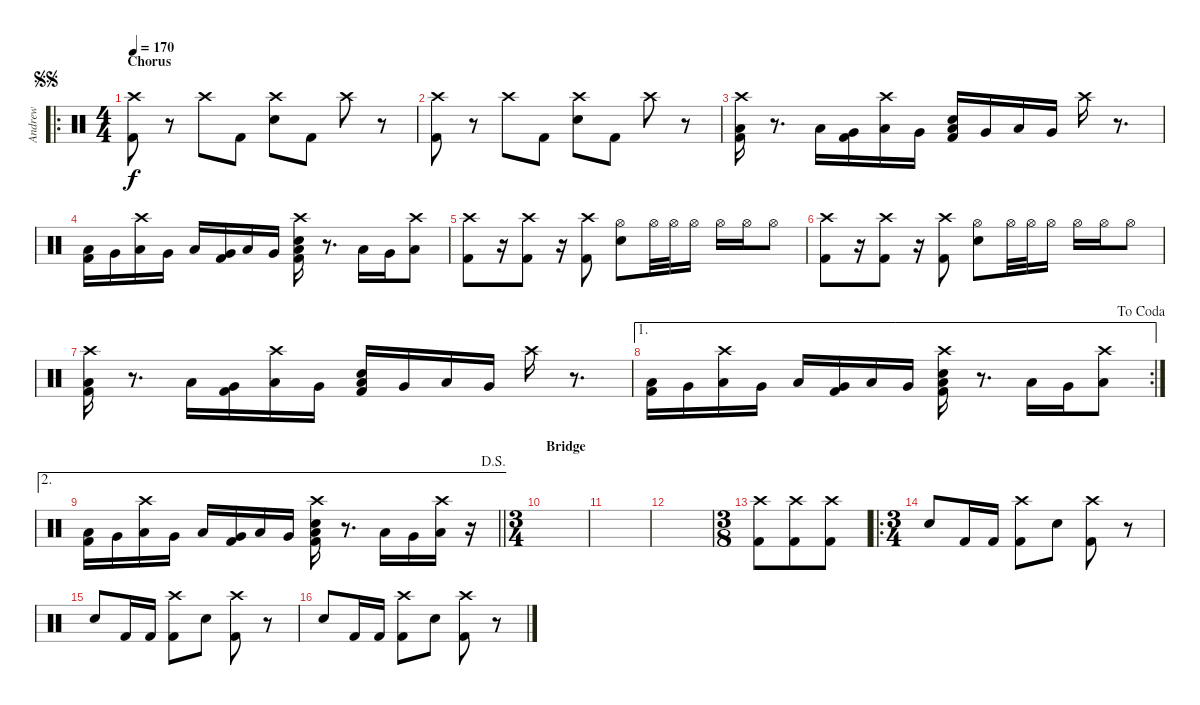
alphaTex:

\track ("Andrew" "Andrew") {instrument percussion}
\staff {score}
\articulation defaults
\ro
\ts (4 4)
\section ("" "Chorus")
\jump segnosegno
\tempo 170
\clef neutral
\ks c
("Crash high (hit)" "Kick (hit) 2").8{dy f} r.8 "Crash high (hit)".8 "Kick (hit) 2".8 ("Crash high (hit)" "Electric Snare (hit)").8 "Kick (hit) 2".8 "Crash high (hit)".8 r.8 |
("Crash high (hit)" "Kick (hit) 2").8 r.8 "Crash high (hit)".8 "Kick (hit) 2".8 ("Crash high (hit)" "Electric Snare (hit)").8 "Kick (hit) 2".8 "Crash high (hit)".8 r.8 |
("Crash high (hit)" "Low Floor Tom (hit)" "Kick (hit) 2").16 r.8{d} "Low Floor Tom (hit)".16 ("Very Low Tom (hit)" "Kick (hit) 2").16 ("Crash high (hit)" "Low Floor Tom (hit)").16 "Very Low Tom (hit)".16 ("Electric Snare (hit)" "Low Floor Tom (hit)" "Kick (hit) 2").16 "Very Low Tom (hit)".16 "Low Floor Tom (hit)".16 "Very Low Tom (hit)".16 "Crash high (hit)".16 r.8{d} |
("Low Floor Tom (hit)" "Kick (hit) 2").16 "Very Low Tom (hit)".16 ("Crash high (hit)" "Low Floor Tom (hit)").16 "Very Low Tom (hit)".16 "Low Floor Tom (hit)".16 ("Very Low Tom (hit)" "Kick (hit) 2").16 "Low Floor Tom (hit)".16 "Very Low Tom (hit)".16 ("Crash high (hit)" "Electric Snare (hit)" "Low Floor Tom (hit)" "Kick (hit) 2").16 r.8{d} "Low Floor Tom (hit)".16 "Very Low Tom (hit)".16 ("Crash high (hit)" "Low Floor Tom (hit)").8 |
("Crash high (hit)" "Kick (hit) 2").8 r.16 ("Crash high (hit)" "Kick (hit) 2").8 r.16 ("Crash high (hit)" "Kick (hit) 2").8 ("Hi-Hat (open)" "Electric Snare (hit)").8 "Hi-Hat (open)".32 "Hi-Hat (open)".32 "Hi-Hat (open)".16 "Hi-Hat (open)".16 "Hi-Hat (open)".16 "Hi-Hat (open)".8 |
("Crash high (hit)" "Kick (hit) 2").8 r.16 ("Crash high (hit)" "Kick (hit) 2").8 r.16 ("Crash high (hit)" "Kick (hit) 2").8 ("Hi-Hat (open)" "Electric Snare (hit)").8 "Hi-Hat (open)".32 "Hi-Hat (open)".32 "Hi-Hat (open)".16 "Hi-Hat (open)".16 "Hi-Hat (open)".16 "Hi-Hat (open)".8 |
("Crash high (hit)" "Low Floor Tom (hit)" "Kick (hit) 2").16 r.8{d} "Low Floor Tom (hit)".16 ("Very Low Tom (hit)" "Kick (hit) 2").16 ("Crash high (hit)" "Low Floor Tom (hit)").16 "Very Low Tom (hit)".16 ("Electric Snare (hit)" "Low Floor Tom (hit)" "Kick (hit) 2").16 "Very Low Tom (hit)".16 "Low Floor Tom (hit)".16 "Very Low Tom (hit)".16 "Crash high (hit)".16 r.8{d} |
\ae 1
\rc 2
\jump dacoda
("Low Floor Tom (hit)" "Kick (hit) 2").16 "Very Low Tom (hit)".16 ("Crash high (hit)" "Low Floor Tom (hit)").16 "Very Low Tom (hit)".16 "Low Floor Tom (hit)".16 ("Very Low Tom (hit)" "Kick (hit) 2").16 "Low Floor Tom (hit)".16 "Very Low Tom (hit)".16 ("Crash high (hit)" "Electric Snare (hit)" "Low Floor Tom (hit)" "Kick (hit) 2").16 r.8{d} "Low Floor Tom (hit)".16 "Very Low Tom (hit)".16 ("Crash high (hit)" "Low Floor Tom (hit)").8 |
\ae 2
\jump dalsegno
\barLineRight lightlight
("Low Floor Tom (hit)" "Kick (hit) 2").16 "Very Low Tom (hit)".16 ("Crash high (hit)" "Low Floor Tom (hit)").16 "Very Low Tom (hit)".16 "Low Floor Tom (hit)".16 ("Very Low Tom (hit)" "Kick (hit) 2").16 "Low Floor Tom (hit)".16 "Very Low Tom (hit)".16 ("Crash high (hit)" "Electric Snare (hit)" "Low Floor Tom (hit)" "Kick (hit) 2").16 r.8{d} "Low Floor Tom (hit)".16 "Very Low Tom (hit)".16 ("Crash high (hit)" "Low Floor Tom (hit)").16 r.16 |
\ts (3 4)
\section ("" "Bridge")
|
|
|
\ts (3 8)
("Crash high (hit)" "Kick (hit) 2").8 ("Crash high (hit)" "Kick (hit) 2").8 ("Crash high (hit)" "Kick (hit) 2").8 |
\ro
\ts (3 4)
"Electric Snare (hit)".8 "Kick (hit) 2".16 "Kick (hit) 2".16 ("Crash high (hit)" "Kick (hit) 2").8 "Electric Snare (hit)".8 ("Crash high (hit)" "Kick (hit) 2").8 r.8 |
"Electric Snare (hit)".8 "Kick (hit) 2".16 "Kick (hit) 2".16 ("Crash high (hit)" "Kick (hit) 2").8 "Electric Snare (hit)".8 ("Crash high (hit)" "Kick (hit) 2").8 r.8 |
"Electric Snare (hit)".8 "Kick (hit) 2".16 "Kick (hit) 2".16 ("Crash high (hit)" "Kick (hit) 2").8 "Electric Snare (hit)".8 ("Crash high (hit)" "Kick (hit) 2").8 r.8
